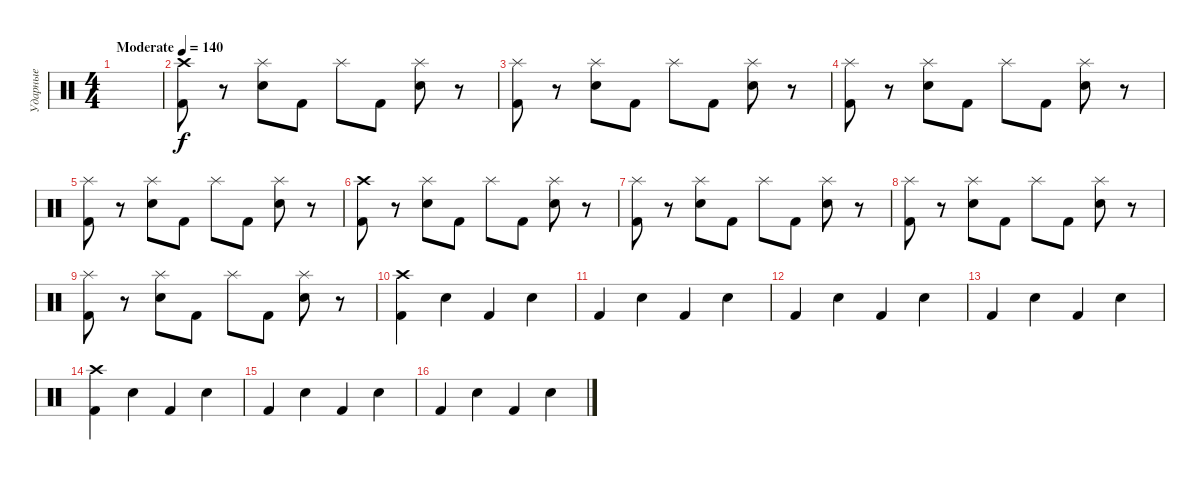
\track ("Ударные" "Ударные") {instrument percussion}
\staff {score}
\articulation defaults
\ts (4 4)
\tempo (140 "Moderate")
\clef neutral
\ks c
|
("Crash high (hit)" "Kick (hit) 2").8 r.8 ("Splash (hit)" "Electric Snare (hit)").8 "Kick (hit) 2".8 "Splash (hit)".8 "Kick (hit) 2".8 ("Splash (hit)" "Electric Snare (hit)").8 r.8 |
("Splash (hit)" "Kick (hit) 2").8 r.8 ("Splash (hit)" "Electric Snare (hit)").8 "Kick (hit) 2".8 "Splash (hit)".8 "Kick (hit) 2".8 ("Splash (hit)" "Electric Snare (hit)").8 r.8 |
("Splash (hit)" "Kick (hit) 2").8 r.8 ("Splash (hit)" "Electric Snare (hit)").8 "Kick (hit) 2".8 "Splash (hit)".8 "Kick (hit) 2".8 ("Splash (hit)" "Electric Snare (hit)").8 r.8 |
("Splash (hit)" "Kick (hit) 2").8 r.8 ("Splash (hit)" "Electric Snare (hit)").8 "Kick (hit) 2".8 "Splash (hit)".8 "Kick (hit) 2".8 ("Splash (hit)" "Electric Snare (hit)").8 r.8 |
("Crash high (hit)" "Kick (hit) 2").8 r.8 ("Splash (hit)" "Electric Snare (hit)").8 "Kick (hit) 2".8 "Splash (hit)".8 "Kick (hit) 2".8 ("Splash (hit)" "Electric Snare (hit)").8 r.8 |
("Splash (hit)" "Kick (hit) 2").8 r.8 ("Splash (hit)" "Electric Snare (hit)").8 "Kick (hit) 2".8 "Splash (hit)".8 "Kick (hit) 2".8 ("Splash (hit)" "Electric Snare (hit)").8 r.8 |
("Splash (hit)" "Kick (hit) 2").8 r.8 ("Splash (hit)" "Electric Snare (hit)").8 "Kick (hit) 2".8 "Splash (hit)".8 "Kick (hit) 2".8 ("Splash (hit)" "Electric Snare (hit)").8 r.8 |
("Splash (hit)" "Kick (hit) 2").8 r.8 ("Splash (hit)" "Electric Snare (hit)").8 "Kick (hit) 2".8 "Splash (hit)".8 "Kick (hit) 2".8 ("Splash (hit)" "Electric Snare (hit)").8 r.8 |
("Crash high (hit)" "Kick (hit) 2").4 "Electric Snare (hit)".4 "Kick (hit) 2".4 "Electric Snare (hit)".4 |
"Kick (hit) 2".4 "Electric Snare (hit)".4 "Kick (hit) 2".4 "Electric Snare (hit)".4 |
"Kick (hit) 2".4 "Electric Snare (hit)".4 "Kick (hit) 2".4 "Electric Snare (hit)".4 |
"Kick (hit) 2".4 "Electric Snare (hit)".4 "Kick (hit) 2".4 "Electric Snare (hit)".4 |
("Crash high (hit)" "Kick (hit) 2").4 "Electric Snare (hit)".4 "Kick (hit) 2".4 "Electric Snare (hit)".4 |
"Kick (hit) 2".4 "Electric Snare (hit)".4 "Kick (hit) 2".4 "Electric Snare (hit)".4 |
"Kick (hit) 2".4 "Electric Snare (hit)".4 "Kick (hit) 2".4 "Electric Snare (hit)".4
